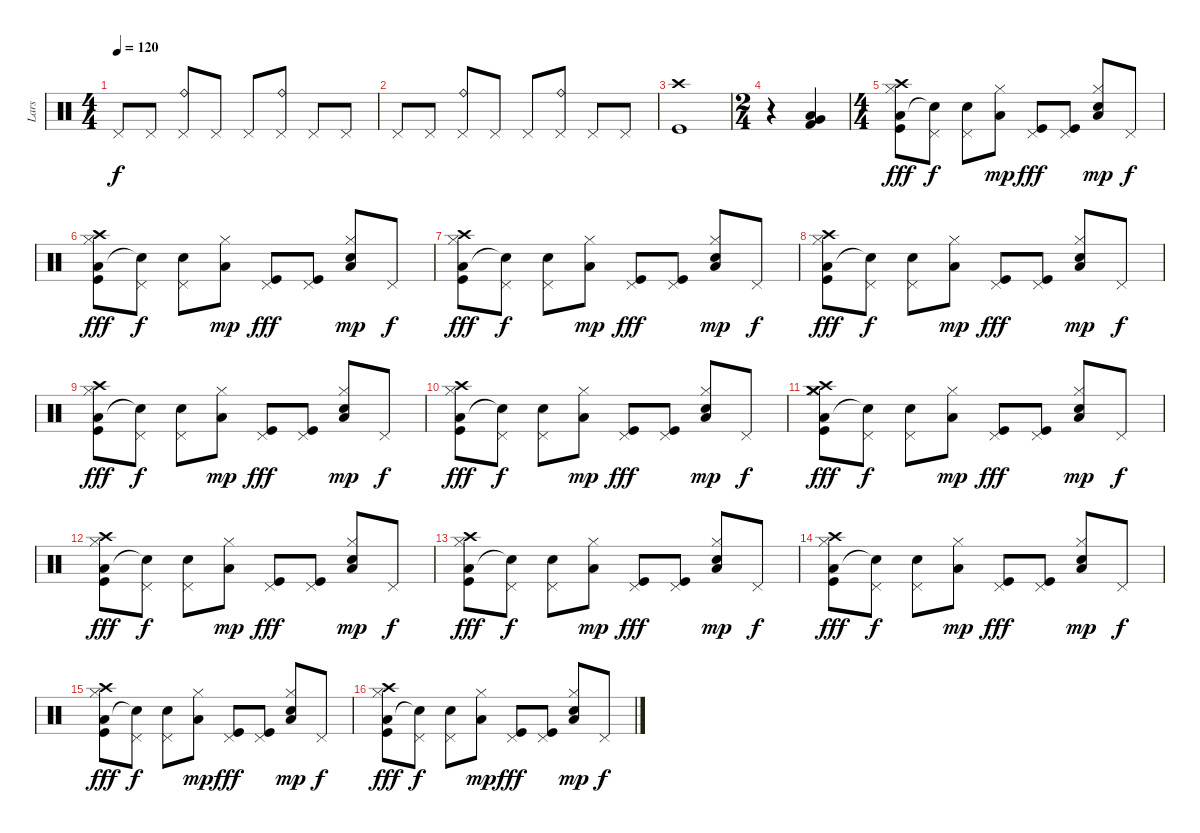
\track ("Lars" "Lars") {instrument percussion}
\staff {score}
\articulation defaults
\ts (4 4)
\tempo 120
\clef neutral
\ks c "Pedal Hi-Hat (hit)".8{dy f} "Pedal Hi-Hat (hit)".8
("Pedal Hi-Hat (hit)" "Ride (bell)").8 "Pedal Hi-Hat (hit)".8 "Pedal Hi-Hat (hit)".8 ("Pedal Hi-Hat (hit)" "Ride (bell)").8 "Pedal Hi-Hat (hit)".8 "Pedal Hi-Hat (hit)".8 |
"Pedal Hi-Hat (hit)".8 "Pedal Hi-Hat (hit)".8 ("Pedal Hi-Hat (hit)" "Ride (bell)").8 "Pedal Hi-Hat (hit)".8 "Pedal Hi-Hat (hit)".8 ("Pedal Hi-Hat (hit)" "Ride (bell)").8 "Pedal Hi-Hat (hit)".8 "Pedal Hi-Hat (hit)".8 |
("Crash high (hit)" "Kick (hit)").1 |
\ts (2 4)
r.4 ("Low Floor Tom (hit)" "Very Low Tom (hit)" "Kick (hit) 2").4 |
\ts (4 4)
("Hi-Hat (closed)" "Low Floor Tom (hit)" "Crash high (hit)" "Kick (hit)").8{dy fff} ("Pedal Hi-Hat (hit)" "Snare (hit)"{t}).8{dy f} ("Pedal Hi-Hat (hit)" "Electric Snare (hit)").8 ("Hi-Hat (closed)" "Low Floor Tom (hit)").8{dy mp} ("Pedal Hi-Hat (hit)" "Kick (hit)").8{dy fff} ("Pedal Hi-Hat (hit)" "Kick (hit)").8 ("Hi-Hat (closed)" "Low Floor Tom (hit)" "Electric Snare (hit)").8{dy mp} "Pedal Hi-Hat (hit)".8{dy f} |
("Hi-Hat (closed)" "Low Floor Tom (hit)" "Crash high (hit)" "Kick (hit)").8{dy fff} ("Pedal Hi-Hat (hit)" "Snare (hit)"{t}).8{dy f} ("Pedal Hi-Hat (hit)" "Electric Snare (hit)").8 ("Hi-Hat (closed)" "Low Floor Tom (hit)").8{dy mp} ("Pedal Hi-Hat (hit)" "Kick (hit)").8{dy fff} ("Pedal Hi-Hat (hit)" "Kick (hit)").8 ("Hi-Hat (closed)" "Low Floor Tom (hit)" "Electric Snare (hit)").8{dy mp} "Pedal Hi-Hat (hit)".8{dy f} |
("Hi-Hat (closed)" "Low Floor Tom (hit)" "Crash high (hit)" "Kick (hit)").8{dy fff} ("Pedal Hi-Hat (hit)" "Snare (hit)"{t}).8{dy f} ("Pedal Hi-Hat (hit)" "Electric Snare (hit)").8 ("Hi-Hat (closed)" "Low Floor Tom (hit)").8{dy mp} ("Pedal Hi-Hat (hit)" "Kick (hit)").8{dy fff} ("Pedal Hi-Hat (hit)" "Kick (hit)").8 ("Hi-Hat (closed)" "Low Floor Tom (hit)" "Electric Snare (hit)").8{dy mp} "Pedal Hi-Hat (hit)".8{dy f} |
("Hi-Hat (closed)" "Low Floor Tom (hit)" "Crash high (hit)" "Kick (hit)").8{dy fff} ("Pedal Hi-Hat (hit)" "Snare (hit)"{t}).8{dy f} ("Pedal Hi-Hat (hit)" "Electric Snare (hit)").8 ("Hi-Hat (closed)" "Low Floor Tom (hit)").8{dy mp} ("Pedal Hi-Hat (hit)" "Kick (hit)").8{dy fff} ("Pedal Hi-Hat (hit)" "Kick (hit)").8 ("Hi-Hat (closed)" "Low Floor Tom (hit)" "Electric Snare (hit)").8{dy mp} "Pedal Hi-Hat (hit)".8{dy f} |
("Hi-Hat (closed)" "Low Floor Tom (hit)" "Crash high (hit)" "Kick (hit)").8{dy fff} ("Pedal Hi-Hat (hit)" "Snare (hit)"{t}).8{dy f} ("Pedal Hi-Hat (hit)" "Electric Snare (hit)").8 ("Hi-Hat (closed)" "Low Floor Tom (hit)").8{dy mp} ("Pedal Hi-Hat (hit)" "Kick (hit)").8{dy fff} ("Pedal Hi-Hat (hit)" "Kick (hit)").8 ("Hi-Hat (closed)" "Low Floor Tom (hit)" "Electric Snare (hit)").8{dy mp} "Pedal Hi-Hat (hit)".8{dy f} |
("Hi-Hat (closed)" "Low Floor Tom (hit)" "Crash high (hit)" "Kick (hit)").8{dy fff} ("Pedal Hi-Hat (hit)" "Snare (hit)"{t}).8{dy f} ("Pedal Hi-Hat (hit)" "Electric Snare (hit)").8 ("Hi-Hat (closed)" "Low Floor Tom (hit)").8{dy mp} ("Pedal Hi-Hat (hit)" "Kick (hit)").8{dy fff} ("Pedal Hi-Hat (hit)" "Kick (hit)").8 ("Hi-Hat (closed)" "Low Floor Tom (hit)" "Electric Snare (hit)").8{dy mp} "Pedal Hi-Hat (hit)".8{dy f} |
("Hi-Hat (closed)" "Low Floor Tom (hit)" "Crash high (hit)" "Crash medium (hit)" "Kick (hit)").8{dy fff} ("Pedal Hi-Hat (hit)" "Snare (hit)"{t}).8{dy f} ("Pedal Hi-Hat (hit)" "Electric Snare (hit)").8 ("Hi-Hat (closed)" "Low Floor Tom (hit)").8{dy mp} ("Pedal Hi-Hat (hit)" "Kick (hit)").8{dy fff} ("Pedal Hi-Hat (hit)" "Kick (hit)").8 ("Hi-Hat (closed)" "Low Floor Tom (hit)" "Electric Snare (hit)").8{dy mp} "Pedal Hi-Hat (hit)".8{dy f} |
("Hi-Hat (closed)" "Low Floor Tom (hit)" "Crash high (hit)" "Kick (hit)").8{dy fff} ("Pedal Hi-Hat (hit)" "Snare (hit)"{t}).8{dy f} ("Pedal Hi-Hat (hit)" "Electric Snare (hit)").8 ("Hi-Hat (closed)" "Low Floor Tom (hit)").8{dy mp} ("Pedal Hi-Hat (hit)" "Kick (hit)").8{dy fff} ("Pedal Hi-Hat (hit)" "Kick (hit)").8 ("Hi-Hat (closed)" "Low Floor Tom (hit)" "Electric Snare (hit)").8{dy mp} "Pedal Hi-Hat (hit)".8{dy f} |
("Hi-Hat (closed)" "Low Floor Tom (hit)" "Crash high (hit)" "Kick (hit)").8{dy fff} ("Pedal Hi-Hat (hit)" "Snare (hit)"{t}).8{dy f} ("Pedal Hi-Hat (hit)" "Electric Snare (hit)").8 ("Hi-Hat (closed)" "Low Floor Tom (hit)").8{dy mp} ("Pedal Hi-Hat (hit)" "Kick (hit)").8{dy fff} ("Pedal Hi-Hat (hit)" "Kick (hit)").8 ("Hi-Hat (closed)" "Low Floor Tom (hit)" "Electric Snare (hit)").8{dy mp} "Pedal Hi-Hat (hit)".8{dy f} |
("Hi-Hat (closed)" "Low Floor Tom (hit)" "Crash high (hit)" "Kick (hit)").8{dy fff} ("Pedal Hi-Hat (hit)" "Snare (hit)"{t}).8{dy f} ("Pedal Hi-Hat (hit)" "Electric Snare (hit)").8 ("Hi-Hat (closed)" "Low Floor Tom (hit)").8{dy mp} ("Pedal Hi-Hat (hit)" "Kick (hit)").8{dy fff} ("Pedal Hi-Hat (hit)" "Kick (hit)").8 ("Hi-Hat (closed)" "Low Floor Tom (hit)" "Electric Snare (hit)").8{dy mp} "Pedal Hi-Hat (hit)".8{dy f} |
("Hi-Hat (closed)" "Low Floor Tom (hit)" "Crash high (hit)" "Kick (hit)").8{dy fff} ("Pedal Hi-Hat (hit)" "Snare (hit)"{t}).8{dy f} ("Pedal Hi-Hat (hit)" "Electric Snare (hit)").8 ("Hi-Hat (closed)" "Low Floor Tom (hit)").8{dy mp} ("Pedal Hi-Hat (hit)" "Kick (hit)").8{dy fff} ("Pedal Hi-Hat (hit)" "Kick (hit)").8 ("Hi-Hat (closed)" "Low Floor Tom (hit)" "Electric Snare (hit)").8{dy mp} "Pedal Hi-Hat (hit)".8{dy f} |
("Hi-Hat (closed)" "Low Floor Tom (hit)" "Crash high (hit)" "Kick (hit)").8{dy fff} ("Pedal Hi-Hat (hit)" "Snare (hit)"{t}).8{dy f} ("Pedal Hi-Hat (hit)" "Electric Snare (hit)").8 ("Hi-Hat (closed)" "Low Floor Tom (hit)").8{dy mp} ("Pedal Hi-Hat (hit)" "Kick (hit)").8{dy fff} ("Pedal Hi-Hat (hit)" "Kick (hit)").8 ("Hi-Hat (closed)" "Low Floor Tom (hit)" "Electric Snare (hit)").8{dy mp} "Pedal Hi-Hat (hit)".8{dy f}
